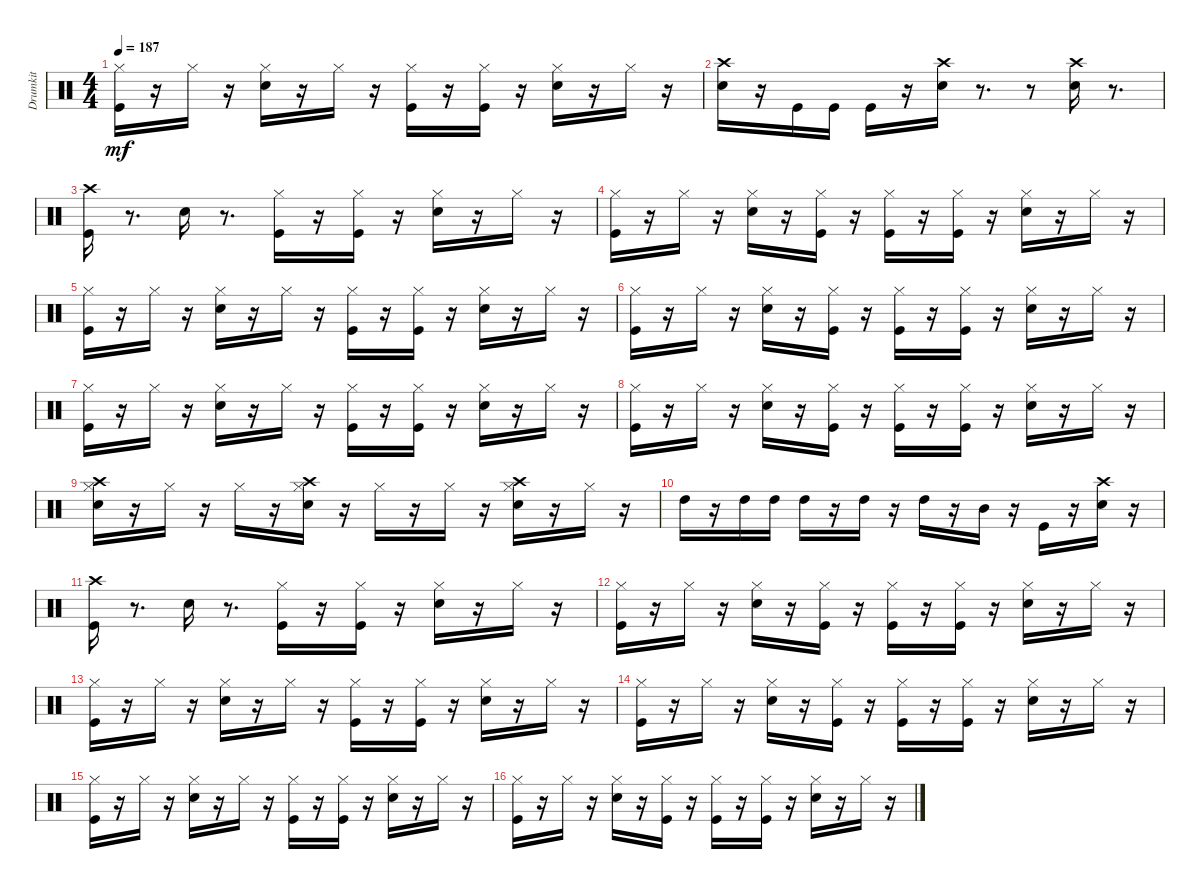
\track ("Drumkit" "Drumkit") {instrument percussion}
\staff {score}
\articulation defaults
\ts (4 4)
\tempo 187
\clef neutral
\ks c
("Hi-Hat (closed)" "Kick (hit)").16{dy mf} r.16 "Hi-Hat (closed)".16 r.16 ("Snare (hit) 2" "Hi-Hat (closed)").16 r.16 "Hi-Hat (closed)".16 r.16 ("Kick (hit)" "Hi-Hat (closed)").16 r.16 ("Kick (hit)" "Hi-Hat (closed)").16 r.16 ("Snare (hit) 2" "Hi-Hat (closed)").16 r.16 "Hi-Hat (closed)".16 r.16 |
("Crash high (hit)" "Snare (hit) 2").16 r.16 "Kick (hit)".16 "Kick (hit)".16 "Kick (hit)".16 r.16 ("Crash high (hit)" "Snare (hit) 2").16 r.8{d} r.8 ("Crash high (hit)" "Snare (hit) 2").16 r.8{d} |
("Crash high (hit)" "Kick (hit)").16 r.8{d} "Snare (hit) 2".16 r.8{d} ("Kick (hit)" "Hi-Hat (closed)").16 r.16 ("Kick (hit)" "Hi-Hat (closed)").16 r.16 ("Snare (hit) 2" "Hi-Hat (closed)").16 r.16 "Hi-Hat (closed)".16 r.16 |
("Kick (hit)" "Hi-Hat (closed)").16 r.16 "Hi-Hat (closed)".16 r.16 ("Snare (hit) 2" "Hi-Hat (closed)").16 r.16 ("Kick (hit)" "Hi-Hat (closed)").16 r.16 ("Kick (hit)" "Hi-Hat (closed)").16 r.16 ("Kick (hit)" "Hi-Hat (closed)").16 r.16 ("Snare (hit) 2" "Hi-Hat (closed)").16 r.16 "Hi-Hat (closed)".16 r.16 |
("Kick (hit)" "Hi-Hat (closed)").16 r.16 "Hi-Hat (closed)".16 r.16 ("Snare (hit) 2" "Hi-Hat (closed)").16 r.16 "Hi-Hat (closed)".16 r.16 ("Kick (hit)" "Hi-Hat (closed)").16 r.16 ("Kick (hit)" "Hi-Hat (closed)").16 r.16 ("Snare (hit) 2" "Hi-Hat (closed)").16 r.16 "Hi-Hat (closed)".16 r.16 |
("Kick (hit)" "Hi-Hat (closed)").16 r.16 "Hi-Hat (closed)".16 r.16 ("Snare (hit) 2" "Hi-Hat (closed)").16 r.16 ("Kick (hit)" "Hi-Hat (closed)").16 r.16 ("Kick (hit)" "Hi-Hat (closed)").16 r.16 ("Kick (hit)" "Hi-Hat (closed)").16 r.16 ("Snare (hit) 2" "Hi-Hat (closed)").16 r.16 "Hi-Hat (closed)".16 r.16 |
("Kick (hit)" "Hi-Hat (closed)").16 r.16 "Hi-Hat (closed)".16 r.16 ("Snare (hit) 2" "Hi-Hat (closed)").16 r.16 "Hi-Hat (closed)".16 r.16 ("Kick (hit)" "Hi-Hat (closed)").16 r.16 ("Kick (hit)" "Hi-Hat (closed)").16 r.16 ("Snare (hit) 2" "Hi-Hat (closed)").16 r.16 "Hi-Hat (closed)".16 r.16 |
("Hi-Hat (closed)" "Kick (hit)").16 r.16 "Hi-Hat (closed)".16 r.16 ("Snare (hit) 2" "Hi-Hat (closed)").16 r.16 ("Kick (hit)" "Hi-Hat (closed)").16 r.16 ("Kick (hit)" "Hi-Hat (closed)").16 r.16 ("Kick (hit)" "Hi-Hat (closed)").16 r.16 ("Snare (hit) 2" "Hi-Hat (closed)").16 r.16 "Hi-Hat (closed)".16 r.16 |
("Crash high (hit)" "Snare (hit) 2" "Hi-Hat (closed)").16 r.16 "Hi-Hat (closed)".16 r.16 "Hi-Hat (closed)".16 r.16 ("Crash high (hit)" "Snare (hit) 2" "Hi-Hat (closed)").16 r.16 "Hi-Hat (closed)".16 r.16 "Hi-Hat (closed)".16 r.16 ("Crash high (hit)" "Snare (hit) 2" "Hi-Hat (closed)").16 r.16 "Hi-Hat (closed)".16 r.16 |
"High Tom (hit)".16 r.16 "High Tom (hit)".16 "High Tom (hit)".16 "High Tom (hit)".16 r.16 "High Tom (hit)".16 r.16 "High Tom (hit)".16 r.16 "Mid Tom (hit)".16 r.16 "Kick (hit)".16 r.16 ("Snare (hit) 2" "Crash high (hit)").16 r.16 |
("Crash high (hit)" "Kick (hit)").16 r.8{d} "Snare (hit) 2".16 r.8{d} ("Kick (hit)" "Hi-Hat (closed)").16 r.16 ("Kick (hit)" "Hi-Hat (closed)").16 r.16 ("Snare (hit) 2" "Hi-Hat (closed)").16 r.16 "Hi-Hat (closed)".16 r.16 |
("Kick (hit)" "Hi-Hat (closed)").16 r.16 "Hi-Hat (closed)".16 r.16 ("Snare (hit) 2" "Hi-Hat (closed)").16 r.16 ("Kick (hit)" "Hi-Hat (closed)").16 r.16 ("Kick (hit)" "Hi-Hat (closed)").16 r.16 ("Kick (hit)" "Hi-Hat (closed)").16 r.16 ("Snare (hit) 2" "Hi-Hat (closed)").16 r.16 "Hi-Hat (closed)".16 r.16 |
("Kick (hit)" "Hi-Hat (closed)").16 r.16 "Hi-Hat (closed)".16 r.16 ("Snare (hit) 2" "Hi-Hat (closed)").16 r.16 "Hi-Hat (closed)".16 r.16 ("Kick (hit)" "Hi-Hat (closed)").16 r.16 ("Kick (hit)" "Hi-Hat (closed)").16 r.16 ("Snare (hit) 2" "Hi-Hat (closed)").16 r.16 "Hi-Hat (closed)".16 r.16 |
("Kick (hit)" "Hi-Hat (closed)").16 r.16 "Hi-Hat (closed)".16 r.16 ("Snare (hit) 2" "Hi-Hat (closed)").16 r.16 ("Kick (hit)" "Hi-Hat (closed)").16 r.16 ("Kick (hit)" "Hi-Hat (closed)").16 r.16 ("Kick (hit)" "Hi-Hat (closed)").16 r.16 ("Snare (hit) 2" "Hi-Hat (closed)").16 r.16 "Hi-Hat (closed)".16 r.16 |
("Kick (hit)" "Hi-Hat (closed)").16 r.16 "Hi-Hat (closed)".16 r.16 ("Snare (hit) 2" "Hi-Hat (closed)").16 r.16 "Hi-Hat (closed)".16 r.16 ("Kick (hit)" "Hi-Hat (closed)").16 r.16 ("Kick (hit)" "Hi-Hat (closed)").16 r.16 ("Snare (hit) 2" "Hi-Hat (closed)").16 r.16 "Hi-Hat (closed)".16 r.16 |
("Kick (hit)" "Hi-Hat (closed)").16 r.16 "Hi-Hat (closed)".16 r.16 ("Snare (hit) 2" "Hi-Hat (closed)").16 r.16 ("Kick (hit)" "Hi-Hat (closed)").16 r.16 ("Kick (hit)" "Hi-Hat (closed)").16 r.16 ("Kick (hit)" "Hi-Hat (closed)").16 r.16 ("Snare (hit) 2" "Hi-Hat (closed)").16 r.16 "Hi-Hat (closed)".16 r.16
